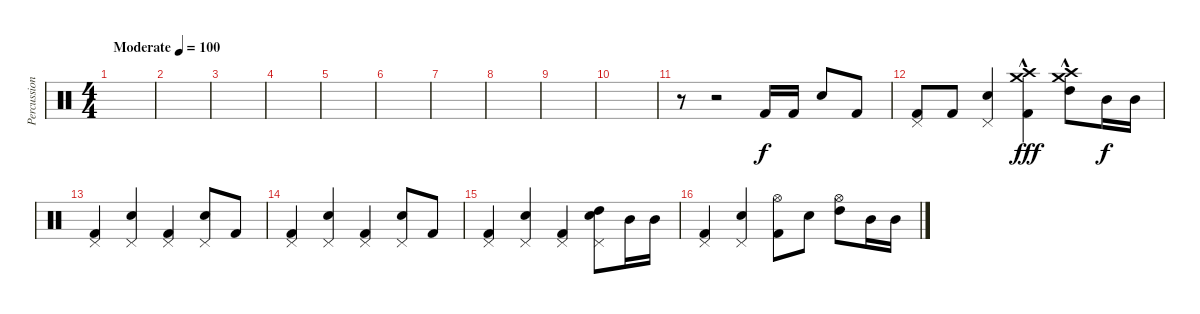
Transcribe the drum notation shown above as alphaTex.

\track ("Percussioni" "Percussion") {instrument percussion}
\staff {score}
\articulation defaults
\ts (4 4)
\tempo (100 "Moderate")
\clef neutral
\ks c
|
|
|
|
|
|
|
|
|
|
r.8 r.2 "Kick (hit) 2".16 "Kick (hit) 2".16 "Electric Snare (hit)".8 "Kick (hit) 2".8 |
("Kick (hit) 2" "Pedal Hi-Hat (hit)").8 "Kick (hit) 2".8 ("Electric Snare (hit)" "Pedal Hi-Hat (hit)").4 ("Crash medium (hit)"{hac} "Crash high (hit)"{hac} "Kick (hit) 2").4{dy fff} ("Crash high (hit)"{hac} "Crash medium (hit)"{hac} "High Tom (hit)").8 "Mid Tom (hit)".16{dy f} "Mid Tom (hit)".16 |
("Kick (hit) 2" "Pedal Hi-Hat (hit)").4 ("Electric Snare (hit)" "Pedal Hi-Hat (hit)").4 ("Kick (hit) 2" "Pedal Hi-Hat (hit)").4 ("Electric Snare (hit)" "Pedal Hi-Hat (hit)").8 "Kick (hit) 2".8 |
("Kick (hit) 2" "Pedal Hi-Hat (hit)").4 ("Electric Snare (hit)" "Pedal Hi-Hat (hit)").4 ("Kick (hit) 2" "Pedal Hi-Hat (hit)").4 ("Electric Snare (hit)" "Pedal Hi-Hat (hit)").8 "Kick (hit) 2".8 |
("Kick (hit) 2" "Pedal Hi-Hat (hit)").4 ("Electric Snare (hit)" "Pedal Hi-Hat (hit)").4 ("Kick (hit) 2" "Pedal Hi-Hat (hit)").4 ("Electric Snare (hit)" "High Tom (hit)" "Pedal Hi-Hat (hit)").8 "Mid Tom (hit)".16 "Mid Tom (hit)".16 |
("Kick (hit) 2" "Pedal Hi-Hat (hit)").4 ("Electric Snare (hit)" "Pedal Hi-Hat (hit)").4 ("Hi-Hat (open)" "Kick (hit) 2").8 "Electric Snare (hit)".8 ("Hi-Hat (open)" "High Tom (hit)").8 "Mid Tom (hit)".16 "Mid Tom (hit)".16
